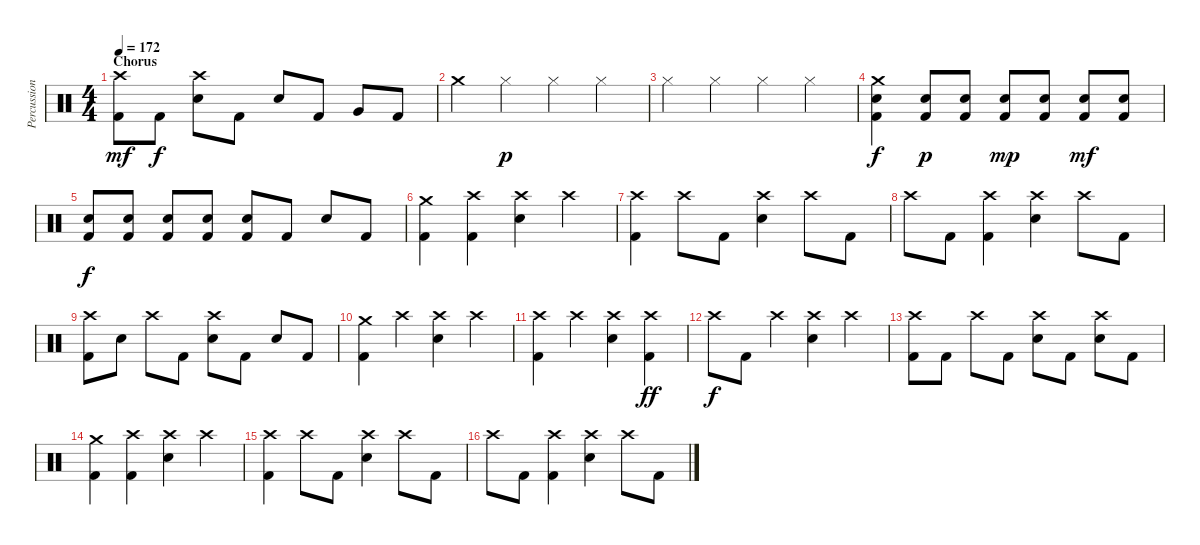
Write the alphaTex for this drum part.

\track ("Percussion" "Percussion") {instrument percussion}
\staff {score}
\articulation defaults
\ts (4 4)
\section ("" "Chorus")
\tempo 172
\clef neutral
\ks c
("Crash high (hit)" "Kick (hit) 2").8{dy mf} "Kick (hit) 2".8{dy f} ("Crash high (hit)" "Electric Snare (hit)").8 "Kick (hit) 2".8 "Electric Snare (hit)".8 "Kick (hit) 2".8 "Very Low Tom (hit)".8 "Kick (hit) 2".8 |
"Crash medium (hit)".4 "Hi-Hat (closed)".4{dy p} "Hi-Hat (closed)".4 "Hi-Hat (closed)".4 |
"Hi-Hat (closed)".4 "Hi-Hat (closed)".4 "Hi-Hat (closed)".4 "Hi-Hat (closed)".4 |
("Crash medium (hit)" "Electric Snare (hit)" "Kick (hit) 2").4{dy f} ("Electric Snare (hit)" "Kick (hit) 2").8{dy p} ("Electric Snare (hit)" "Kick (hit) 2").8 ("Electric Snare (hit)" "Kick (hit) 2").8{dy mp} ("Electric Snare (hit)" "Kick (hit) 2").8 ("Electric Snare (hit)" "Kick (hit) 2").8{dy mf} ("Electric Snare (hit)" "Kick (hit) 2").8 |
("Electric Snare (hit)" "Kick (hit) 2").8{dy f} ("Electric Snare (hit)" "Kick (hit) 2").8 ("Electric Snare (hit)" "Kick (hit) 2").8 ("Electric Snare (hit)" "Kick (hit) 2").8 ("Electric Snare (hit)" "Kick (hit) 2").8 "Kick (hit) 2".8 "Electric Snare (hit)".8 "Kick (hit) 2".8 |
("Crash medium (hit)" "Kick (hit) 2").4 ("Crash high (hit)" "Kick (hit) 2").4 ("Crash high (hit)" "Electric Snare (hit)").4 "Crash high (hit)".4 |
("Crash high (hit)" "Kick (hit) 2").4 "Crash high (hit)".8 "Kick (hit) 2".8 ("Crash high (hit)" "Electric Snare (hit)").4 "Crash high (hit)".8 "Kick (hit) 2".8 |
"Crash high (hit)".8 "Kick (hit) 2".8 ("Crash high (hit)" "Kick (hit) 2").4 ("Crash high (hit)" "Electric Snare (hit)").4 "Crash high (hit)".8 "Kick (hit) 2".8 |
("Crash high (hit)" "Kick (hit) 2").8 "Electric Snare (hit)".8 "Crash high (hit)".8 "Kick (hit) 2".8 ("Crash high (hit)" "Electric Snare (hit)").8 "Kick (hit) 2".8 "Electric Snare (hit)".8 "Kick (hit) 2".8 |
("Crash medium (hit)" "Kick (hit) 2").4 "Crash high (hit)".4 ("Crash high (hit)" "Electric Snare (hit)").4 "Crash high (hit)".4 |
("Crash high (hit)" "Kick (hit) 2").4 "Crash high (hit)".4 ("Crash high (hit)" "Electric Snare (hit)").4 ("Crash high (hit)" "Kick (hit) 2").4{dy ff} |
"Crash high (hit)".8{dy f} "Kick (hit) 2".8 "Crash high (hit)".4 ("Crash high (hit)" "Electric Snare (hit)").4 "Crash high (hit)".4 |
("Crash high (hit)" "Kick (hit) 2").8 "Kick (hit) 2".8 "Crash high (hit)".8 "Kick (hit) 2".8 ("Crash high (hit)" "Electric Snare (hit)").8 "Kick (hit) 2".8 ("Crash high (hit)" "Electric Snare (hit)").8 "Kick (hit) 2".8 |
("Crash medium (hit)" "Kick (hit) 2").4 ("Crash high (hit)" "Kick (hit) 2").4 ("Crash high (hit)" "Electric Snare (hit)").4 "Crash high (hit)".4 |
("Crash high (hit)" "Kick (hit) 2").4 "Crash high (hit)".8 "Kick (hit) 2".8 ("Crash high (hit)" "Electric Snare (hit)").4 "Crash high (hit)".8 "Kick (hit) 2".8 |
"Crash high (hit)".8 "Kick (hit) 2".8 ("Crash high (hit)" "Kick (hit) 2").4 ("Crash high (hit)" "Electric Snare (hit)").4 "Crash high (hit)".8 "Kick (hit) 2".8
